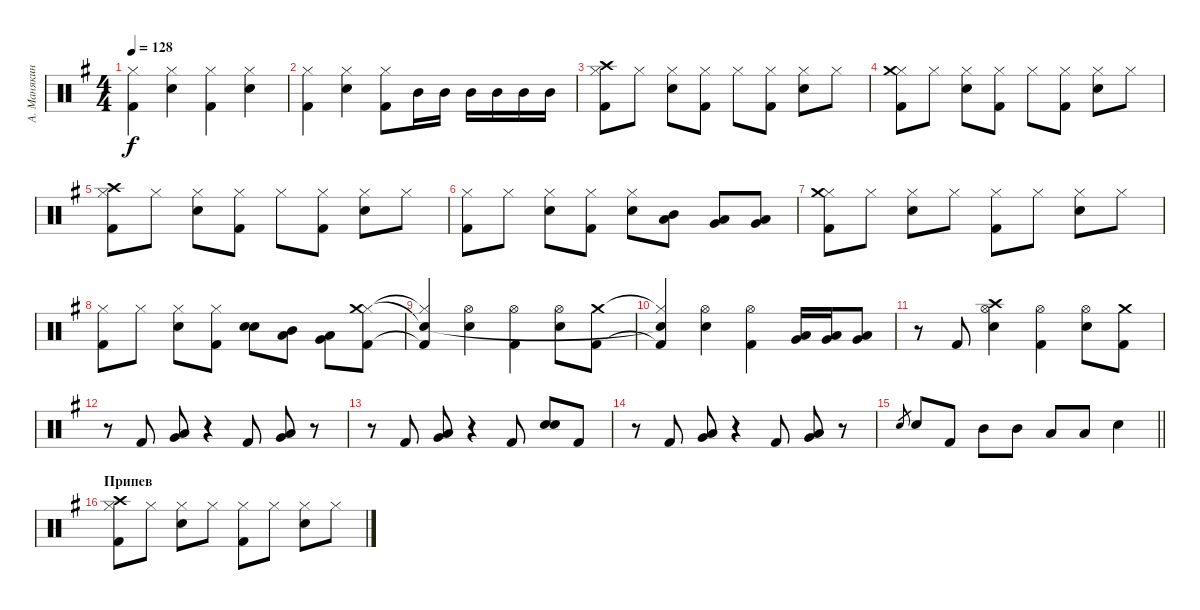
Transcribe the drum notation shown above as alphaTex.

\track ("А. Манякин" "А. Манякин") {instrument percussion}
\staff {score}
\articulation defaults
\ts (4 4)
\tempo 128
\clef neutral
\ks g
("Kick (hit) 2" "Hi-Hat (closed)").4{dy f} ("Electric Snare (hit)" "Hi-Hat (closed)").4 ("Kick (hit) 2" "Hi-Hat (closed)").4 ("Electric Snare (hit)" "Hi-Hat (closed)").4 |
("Kick (hit) 2" "Hi-Hat (closed)").4 ("Electric Snare (hit)" "Hi-Hat (closed)").4 ("Kick (hit) 2" "Hi-Hat (closed)").8 "Mid Tom (hit)".16 "Mid Tom (hit)".16 "Mid Tom (hit)".16 "Mid Tom (hit)".16 "Mid Tom (hit)".16 "Mid Tom (hit)".16 |
("Kick (hit) 2" "Hi-Hat (closed)" "Crash high (hit)").8 "Hi-Hat (closed)".8 ("Electric Snare (hit)" "Hi-Hat (closed)").8 ("Kick (hit) 2" "Hi-Hat (closed)").8 "Hi-Hat (closed)".8 ("Kick (hit) 2" "Hi-Hat (closed)").8 ("Electric Snare (hit)" "Hi-Hat (closed)").8 "Hi-Hat (closed)".8 |
("Kick (hit) 2" "Hi-Hat (closed)" "Crash medium (hit)").8 "Hi-Hat (closed)".8 ("Electric Snare (hit)" "Hi-Hat (closed)").8 ("Kick (hit) 2" "Hi-Hat (closed)").8 "Hi-Hat (closed)".8 ("Kick (hit) 2" "Hi-Hat (closed)").8 ("Electric Snare (hit)" "Hi-Hat (closed)").8 "Hi-Hat (closed)".8 |
("Kick (hit) 2" "Hi-Hat (closed)" "Crash high (hit)").8 "Hi-Hat (closed)".8 ("Electric Snare (hit)" "Hi-Hat (closed)").8 ("Kick (hit) 2" "Hi-Hat (closed)").8 "Hi-Hat (closed)".8 ("Kick (hit) 2" "Hi-Hat (closed)").8 ("Electric Snare (hit)" "Hi-Hat (closed)").8 "Hi-Hat (closed)".8 |
("Kick (hit) 2" "Hi-Hat (closed)").8 "Hi-Hat (closed)".8 ("Electric Snare (hit)" "Hi-Hat (closed)").8 ("Kick (hit) 2" "Hi-Hat (closed)").8 ("Electric Snare (hit)" "Hi-Hat (closed)").8 ("Mid Tom (hit)" "Low Tom (hit)").8 ("Low Tom (hit)" "Very Low Tom (hit)").8 ("Very Low Tom (hit)" "Low Floor Tom (hit)").8 |
("Kick (hit) 2" "Hi-Hat (closed)" "Crash medium (hit)").8 "Hi-Hat (closed)".8 ("Electric Snare (hit)" "Hi-Hat (closed)").8 "Hi-Hat (closed)".8 ("Kick (hit) 2" "Hi-Hat (closed)").8 "Hi-Hat (closed)".8 ("Electric Snare (hit)" "Hi-Hat (closed)").8 "Hi-Hat (closed)".8 |
("Kick (hit) 2" "Hi-Hat (closed)").8 "Hi-Hat (closed)".8 ("Electric Snare (hit)" "Hi-Hat (closed)").8 ("Kick (hit) 2" "Hi-Hat (closed)").8 ("Electric Snare (hit)" "Electric Snare (hit)").8 ("Mid Tom (hit)" "Low Tom (hit)").8 ("Low Tom (hit)" "Very Low Tom (hit)").8 ("Kick (hit) 2" "Hi-Hat (closed)" "Crash medium (hit)").8 |
("Kick (hit) 2"{t} "Hi-Hat (closed)"{t} "Snare (hit)"{t}).4 ("Electric Snare (hit)" "Hi-Hat (open)").4 ("Kick (hit) 2" "Hi-Hat (open)").4 ("Electric Snare (hit)" "Hi-Hat (open)").8 ("Kick (hit) 2" "Crash medium (hit)").8 |
("Kick (hit) 2"{t} "Hi-Hat (closed)"{t} "Snare (hit)"{t}).4 ("Electric Snare (hit)" "Hi-Hat (open)").4 ("Kick (hit) 2" "Hi-Hat (open)").4 ("Very Low Tom (hit)" "Low Tom (hit)").16 ("Very Low Tom (hit)" "Low Tom (hit)").16 ("Very Low Tom (hit)" "Low Tom (hit)").8 |
r.8 "Kick (hit) 2".8 ("Electric Snare (hit)" "Hi-Hat (open)" "Crash high (hit)").4 ("Kick (hit) 2" "Hi-Hat (open)").4 ("Electric Snare (hit)" "Hi-Hat (open)").8 ("Kick (hit) 2" "Crash medium (hit)").8 |
r.8 "Kick (hit) 2".8 ("Very Low Tom (hit)" "Low Tom (hit)").8 r.4 "Kick (hit) 2".8 ("Very Low Tom (hit)" "Low Tom (hit)").8 r.8 |
r.8 "Kick (hit) 2".8 ("Very Low Tom (hit)" "Low Tom (hit)").8 r.4 "Kick (hit) 2".8 ("Electric Snare (hit)" "Electric Snare (hit)").8 "Kick (hit) 2".8 |
r.8 "Kick (hit) 2".8 ("Very Low Tom (hit)" "Low Tom (hit)").8 r.4 "Kick (hit) 2".8 ("Very Low Tom (hit)" "Low Tom (hit)").8 r.8 |
\barLineRight lightlight "Electric Snare (hit)".8{gr} "Electric Snare (hit)".8 "Kick (hit) 2".8 "Mid Tom (hit)".8 "Mid Tom (hit)".8 "Low Tom (hit)".8 "Low Tom (hit)".8 "Electric Snare (hit)".4
|
\section ("" "Припев")
("Kick (hit) 2" "Hi-Hat (closed)" "Crash high (hit)").8 "Hi-Hat (closed)".8 ("Electric Snare (hit)" "Hi-Hat (closed)").8 "Hi-Hat (closed)".8 ("Kick (hit) 2" "Hi-Hat (closed)").8 "Hi-Hat (closed)".8 ("Electric Snare (hit)" "Hi-Hat (closed)").8 "Hi-Hat (closed)".8
